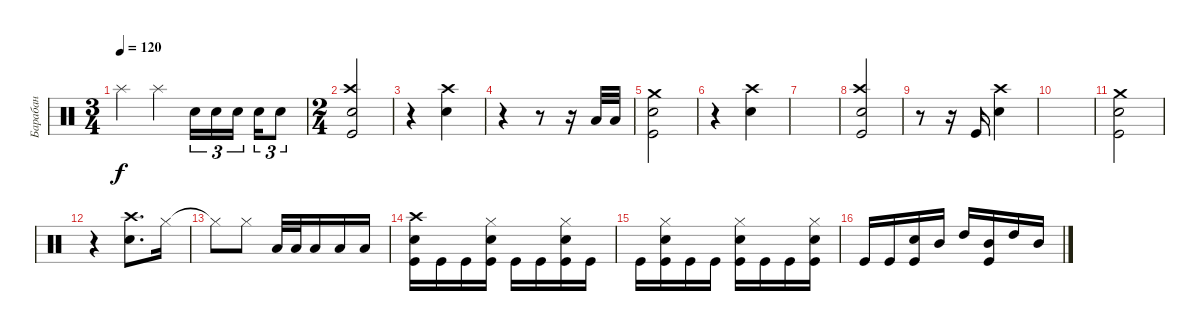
\track ("Барабан" "Барабан") {instrument percussion}
\staff {score}
\articulation defaults
\ts (3 4)
\tempo 120
\clef neutral
\ks c "Splash (hit)".4{dy f} "Splash (hit)".4 "Electric Snare (hit)".16{tu (3 2)} "Electric Snare (hit)".16{tu (3 2)} "Electric Snare (hit)".16{tu (3 2) beam splitsecondary} "Electric Snare (hit)".16{tu (3 2)} "Electric Snare (hit)".8{tu (3 2)}
|
\ts (2 4)
("Crash high (hit)" "Electric Snare (hit)" "Kick (hit)").2 |
r.4 ("Electric Snare (hit)" "Crash high (hit)").4 |
r.4 r.8 r.16 "Low Tom (hit)".32 "Low Tom (hit)".32 |
("Crash medium (hit)" "Electric Snare (hit)" "Kick (hit)").2 |
r.4 ("Electric Snare (hit)" "Crash high (hit)").4 |
|
("Crash high (hit)" "Electric Snare (hit)" "Kick (hit)").2 |
r.8 r.16 "Kick (hit)".16 ("Electric Snare (hit)" "Crash high (hit)").4 |
|
("Crash medium (hit)" "Electric Snare (hit)" "Kick (hit)").2 |
r.4 ("Electric Snare (hit)" "Crash high (hit)").8{d} "Hi-Hat (closed)".16 |
"Hi-Hat (closed)"{t}.8 "Hi-Hat (closed)".8 "Low Tom (hit)".32 "Low Tom (hit)".32 "Low Tom (hit)".16 "Low Tom (hit)".16 "Low Tom (hit)".16 |
("Crash high (hit)" "Electric Snare (hit)" "Kick (hit)").16 "Kick (hit)".16 "Kick (hit)".16 ("Hi-Hat (closed)" "Electric Snare (hit)" "Kick (hit)").16 "Kick (hit)".16 "Kick (hit)".16 ("Hi-Hat (closed)" "Electric Snare (hit)" "Kick (hit)").16 "Kick (hit)".16 |
"Kick (hit)".16 ("Hi-Hat (closed)" "Electric Snare (hit)" "Kick (hit)").16 "Kick (hit)".16 "Kick (hit)".16 ("Hi-Hat (closed)" "Electric Snare (hit)" "Kick (hit)").16 "Kick (hit)".16 "Kick (hit)".16 ("Hi-Hat (closed)" "Electric Snare (hit)" "Kick (hit)").16 |
"Kick (hit)".16 "Kick (hit)".16 ("Electric Snare (hit)" "Kick (hit)").16 "Mid Tom (hit)".16 "High Tom (hit)".16 ("Mid Tom (hit)" "Kick (hit)").16 "High Tom (hit)".16 "Mid Tom (hit)".16
